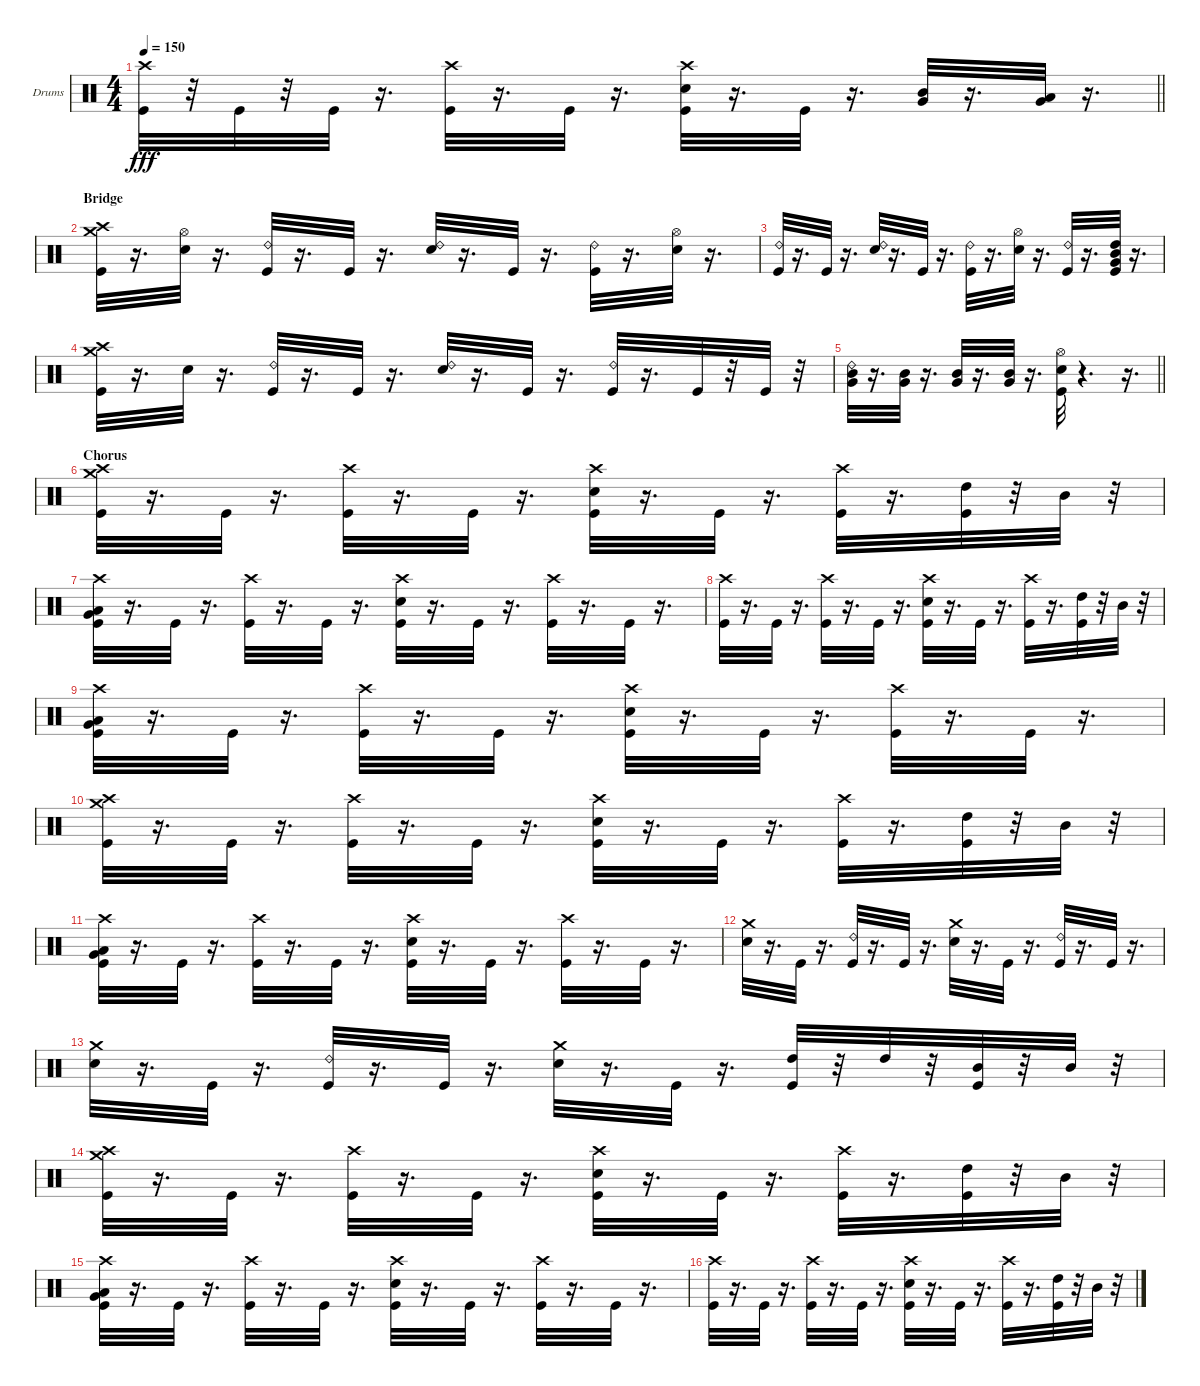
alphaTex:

\bracketExtendMode groupsimilarinstruments
\firstSystemTrackNameOrientation horizontal
\otherSystemsTrackNameOrientation horizontal
\track ("Dave McClain" "Drums") {mute instrument percussion}
\staff {score}
\articulation defaults
\ts (4 4)
\tempo 150
\clef neutral
\barLineRight lightlight
\ks c
("Crash high (hit)" "Kick (hit)").32{dy fff} r.32 "Kick (hit)".32 r.32 "Kick (hit)".32 r.16{d} ("Crash high (hit)" "Kick (hit)").32 r.16{d} "Kick (hit)".32 r.16{d} ("Snare (hit) 2" "Crash high (hit)" "Kick (hit)").32 r.16{d} "Kick (hit)".32 r.16{d} ("Mid Tom (hit)" "Very Low Tom (hit)").32 r.16{d} ("Very Low Tom (hit)" "Low Tom (hit)").32 r.16{d} |
\section ("" "Bridge")
("Crash high (hit)" "Crash medium (hit)" "Kick (hit)").32 r.16{d} ("Hi-Hat (open)" "Snare (hit) 2").32 r.16{d} ("Ride (bell) 2" "Kick (hit)").32 r.16{d} "Kick (hit)".32 r.16{d} ("Ride (bell) 2" "Snare (hit) 2").32 r.16{d} "Kick (hit)".32 r.16{d} ("Ride (bell) 2" "Kick (hit)").32 r.16{d} ("Hi-Hat (open)" "Snare (hit) 2").32 r.16{d} |
("Ride (bell) 2" "Kick (hit)").32 r.16{d} "Kick (hit)".32 r.16{d} ("Ride (bell) 2" "Snare (hit) 2").32 r.16{d} "Kick (hit)".32 r.16{d} ("Ride (bell) 2" "Kick (hit)").32 r.16{d} ("Hi-Hat (open)" "Snare (hit) 2").32 r.16{d} ("Ride (bell) 2" "Kick (hit)").32 r.16{d} ("High Tom (hit)" "Mid Tom (hit)" "Very Low Tom (hit)" "Kick (hit)").32 r.16{d} |
("Kick (hit)" "Crash medium (hit)" "Crash high (hit)").32 r.16{d} "Snare (hit) 2".32 r.16{d} ("Kick (hit)" "Ride (bell) 2").32 r.16{d} "Kick (hit)".32 r.16{d} ("Snare (hit) 2" "Ride (bell) 2").32 r.16{d} "Kick (hit)".32 r.16{d} ("Kick (hit)" "Ride (bell) 2").32 r.16{d} "Kick (hit)".32 r.32 "Kick (hit)".32 r.32 |
\barLineRight lightlight
("Mid Tom (hit)" "Very Low Tom (hit)" "Ride (bell) 2").32 r.16{d} ("Mid Tom (hit)" "Very Low Tom (hit)").32 r.16{d} ("Very Low Tom (hit)" "Mid Tom (hit)").32 r.16{d} ("Very Low Tom (hit)" "Mid Tom (hit)").32 r.16{d} ("Kick (hit)" "Snare (hit) 2" "Hi-Hat (open)").32 r.4{d} r.16{d} |
\section ("" "Chorus")
("Crash medium (hit)" "Crash high (hit)" "Kick (hit)").32 r.16{d} "Kick (hit)".32 r.16{d} ("Crash high (hit)" "Kick (hit)").32 r.16{d} "Kick (hit)".32 r.16{d} ("Crash high (hit)" "Snare (hit) 2" "Kick (hit)").32 r.16{d} "Kick (hit)".32 r.16{d} ("Crash high (hit)" "Kick (hit)").32 r.16{d} ("High Tom (hit)" "Kick (hit)").32 r.32 "Mid Tom (hit)".32 r.32 |
("Very Low Tom (hit)" "Low Tom (hit)" "Crash high (hit)" "Kick (hit)").32 r.16{d} "Kick (hit)".32 r.16{d} ("Crash high (hit)" "Kick (hit)").32 r.16{d} "Kick (hit)".32 r.16{d} ("Crash high (hit)" "Snare (hit) 2" "Kick (hit)").32 r.16{d} "Kick (hit)".32 r.16{d} ("Crash high (hit)" "Kick (hit)").32 r.16{d} "Kick (hit)".32 r.16{d} |
("Crash high (hit)" "Kick (hit)").32 r.16{d} "Kick (hit)".32 r.16{d} ("Crash high (hit)" "Kick (hit)").32 r.16{d} "Kick (hit)".32 r.16{d} ("Crash high (hit)" "Snare (hit) 2" "Kick (hit)").32 r.16{d} "Kick (hit)".32 r.16{d} ("Crash high (hit)" "Kick (hit)").32 r.16{d} ("High Tom (hit)" "Kick (hit)").32 r.32 "Mid Tom (hit)".32 r.32 |
("Low Tom (hit)" "Very Low Tom (hit)" "Crash high (hit)" "Kick (hit)").32 r.16{d} "Kick (hit)".32 r.16{d} ("Crash high (hit)" "Kick (hit)").32 r.16{d} "Kick (hit)".32 r.16{d} ("Crash high (hit)" "Snare (hit) 2" "Kick (hit)").32 r.16{d} "Kick (hit)".32 r.16{d} ("Crash high (hit)" "Kick (hit)").32 r.16{d} "Kick (hit)".32 r.16{d} |
("Crash medium (hit)" "Crash high (hit)" "Kick (hit)").32 r.16{d} "Kick (hit)".32 r.16{d} ("Crash high (hit)" "Kick (hit)").32 r.16{d} "Kick (hit)".32 r.16{d} ("Crash high (hit)" "Snare (hit) 2" "Kick (hit)").32 r.16{d} "Kick (hit)".32 r.16{d} ("Crash high (hit)" "Kick (hit)").32 r.16{d} ("High Tom (hit)" "Kick (hit)").32 r.32 "Mid Tom (hit)".32 r.32 |
("Very Low Tom (hit)" "Low Tom (hit)" "Crash high (hit)" "Kick (hit)").32 r.16{d} "Kick (hit)".32 r.16{d} ("Crash high (hit)" "Kick (hit)").32 r.16{d} "Kick (hit)".32 r.16{d} ("Crash high (hit)" "Snare (hit) 2" "Kick (hit)").32 r.16{d} "Kick (hit)".32 r.16{d} ("Crash high (hit)" "Kick (hit)").32 r.16{d} "Kick (hit)".32 r.16{d} |
("Snare (hit) 2" "Crash medium (hit)").32 r.16{d} "Kick (hit)".32 r.16{d} ("Ride (bell) 2" "Kick (hit)").32 r.16{d} "Kick (hit)".32 r.16{d} ("Crash medium (hit)" "Snare (hit) 2").32 r.16{d} "Kick (hit)".32 r.16{d} ("Ride (bell) 2" "Kick (hit)").32 r.16{d} "Kick (hit)".32 r.16{d} |
("Crash medium (hit)" "Snare (hit) 2").32 r.16{d} "Kick (hit)".32 r.16{d} ("Ride (bell) 2" "Kick (hit)").32 r.16{d} "Kick (hit)".32 r.16{d} ("Crash medium (hit)" "Snare (hit) 2").32 r.16{d} "Kick (hit)".32 r.16{d} ("High Tom (hit)" "Kick (hit)").32 r.32 "High Tom (hit)".32 r.32 ("Mid Tom (hit)" "Kick (hit)").32 r.32 "Mid Tom (hit)".32 r.32 |
("Crash medium (hit)" "Crash high (hit)" "Kick (hit)").32 r.16{d} "Kick (hit)".32 r.16{d} ("Crash high (hit)" "Kick (hit)").32 r.16{d} "Kick (hit)".32 r.16{d} ("Crash high (hit)" "Snare (hit) 2" "Kick (hit)").32 r.16{d} "Kick (hit)".32 r.16{d} ("Crash high (hit)" "Kick (hit)").32 r.16{d} ("High Tom (hit)" "Kick (hit)").32 r.32 "Mid Tom (hit)".32 r.32 |
("Very Low Tom (hit)" "Low Tom (hit)" "Crash high (hit)" "Kick (hit)").32 r.16{d} "Kick (hit)".32 r.16{d} ("Crash high (hit)" "Kick (hit)").32 r.16{d} "Kick (hit)".32 r.16{d} ("Crash high (hit)" "Snare (hit) 2" "Kick (hit)").32 r.16{d} "Kick (hit)".32 r.16{d} ("Crash high (hit)" "Kick (hit)").32 r.16{d} "Kick (hit)".32 r.16{d} |
("Crash high (hit)" "Kick (hit)").32 r.16{d} "Kick (hit)".32 r.16{d} ("Crash high (hit)" "Kick (hit)").32 r.16{d} "Kick (hit)".32 r.16{d} ("Crash high (hit)" "Snare (hit) 2" "Kick (hit)").32 r.16{d} "Kick (hit)".32 r.16{d} ("Crash high (hit)" "Kick (hit)").32 r.16{d} ("High Tom (hit)" "Kick (hit)").32 r.32 "Mid Tom (hit)".32 r.32
